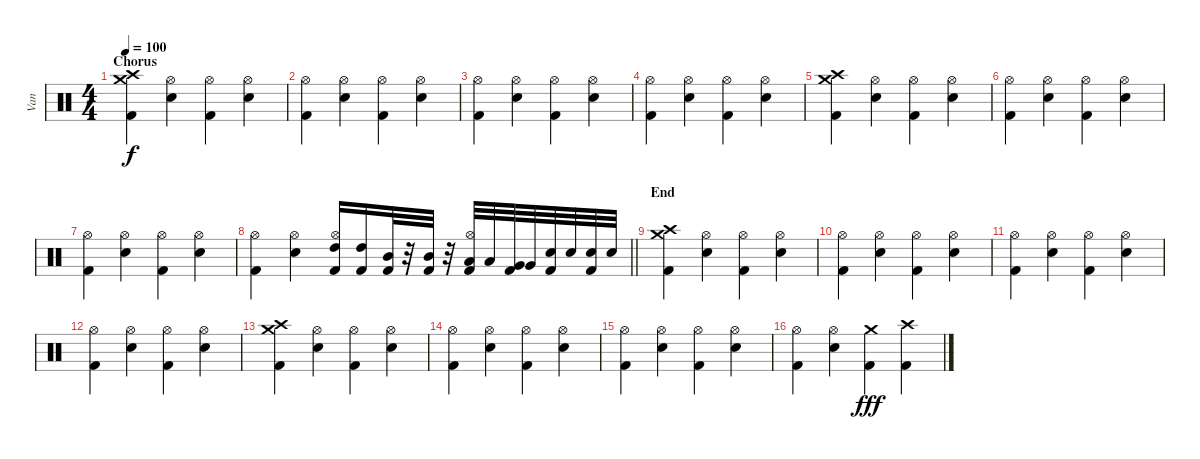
\track ("Van" "Van") {instrument percussion}
\staff {score}
\articulation defaults
\ts (4 4)
\section ("" "Chorus")
\tempo 100
\clef neutral
\ks c
("Crash medium (hit)" "Crash high (hit)" "Kick (hit) 2").4{dy f} ("Hi-Hat (open)" "Electric Snare (hit)").4 ("Hi-Hat (open)" "Kick (hit) 2").4 ("Hi-Hat (open)" "Electric Snare (hit)").4 |
("Hi-Hat (open)" "Kick (hit) 2").4 ("Hi-Hat (open)" "Electric Snare (hit)").4 ("Hi-Hat (open)" "Kick (hit) 2").4 ("Hi-Hat (open)" "Electric Snare (hit)").4 |
("Hi-Hat (open)" "Kick (hit) 2").4 ("Hi-Hat (open)" "Electric Snare (hit)").4 ("Hi-Hat (open)" "Kick (hit) 2").4 ("Hi-Hat (open)" "Electric Snare (hit)").4 |
("Hi-Hat (open)" "Kick (hit) 2").4 ("Hi-Hat (open)" "Electric Snare (hit)").4 ("Hi-Hat (open)" "Kick (hit) 2").4 ("Hi-Hat (open)" "Electric Snare (hit)").4 |
("Crash medium (hit)" "Crash high (hit)" "Kick (hit) 2").4 ("Hi-Hat (open)" "Electric Snare (hit)").4 ("Hi-Hat (open)" "Kick (hit) 2").4 ("Hi-Hat (open)" "Electric Snare (hit)").4 |
("Hi-Hat (open)" "Kick (hit) 2").4 ("Hi-Hat (open)" "Electric Snare (hit)").4 ("Hi-Hat (open)" "Kick (hit) 2").4 ("Hi-Hat (open)" "Electric Snare (hit)").4 |
("Hi-Hat (open)" "Kick (hit) 2").4 ("Hi-Hat (open)" "Electric Snare (hit)").4 ("Hi-Hat (open)" "Kick (hit) 2").4 ("Hi-Hat (open)" "Electric Snare (hit)").4 |
\barLineRight lightlight
("Hi-Hat (open)" "Kick (hit) 2").4 ("Hi-Hat (open)" "Electric Snare (hit)").4 ("Hi-Hat (open)" "High Tom (hit)" "Kick (hit) 2").16 ("High Tom (hit)" "Kick (hit) 2").16 ("Mid Tom (hit)" "Kick (hit) 2").32 r.32 ("Mid Tom (hit)" "Kick (hit) 2").32 r.32 ("Hi-Hat (open)" "Low Tom (hit)" "Kick (hit) 2").32 "Low Tom (hit)".32 ("Very Low Tom (hit)" "Kick (hit) 2").32 "Very Low Tom (hit)".32 ("Electric Snare (hit)" "Kick (hit) 2").32 "Electric Snare (hit)".32 ("Electric Snare (hit)" "Kick (hit) 2").32 "Electric Snare (hit)".32 |
\section ("" "End")
("Crash medium (hit)" "Crash high (hit)" "Kick (hit) 2").4 ("Hi-Hat (open)" "Electric Snare (hit)").4 ("Hi-Hat (open)" "Kick (hit) 2").4 ("Hi-Hat (open)" "Electric Snare (hit)").4 |
("Hi-Hat (open)" "Kick (hit) 2").4 ("Hi-Hat (open)" "Electric Snare (hit)").4 ("Hi-Hat (open)" "Kick (hit) 2").4 ("Hi-Hat (open)" "Electric Snare (hit)").4 |
("Hi-Hat (open)" "Kick (hit) 2").4 ("Hi-Hat (open)" "Electric Snare (hit)").4 ("Hi-Hat (open)" "Kick (hit) 2").4 ("Hi-Hat (open)" "Electric Snare (hit)").4 |
("Hi-Hat (open)" "Kick (hit) 2").4 ("Hi-Hat (open)" "Electric Snare (hit)").4 ("Hi-Hat (open)" "Kick (hit) 2").4 ("Hi-Hat (open)" "Electric Snare (hit)").4 |
("Crash medium (hit)" "Crash high (hit)" "Kick (hit) 2").4 ("Hi-Hat (open)" "Electric Snare (hit)").4 ("Hi-Hat (open)" "Kick (hit) 2").4 ("Hi-Hat (open)" "Electric Snare (hit)").4 |
("Hi-Hat (open)" "Kick (hit) 2").4 ("Hi-Hat (open)" "Electric Snare (hit)").4 ("Hi-Hat (open)" "Kick (hit) 2").4 ("Hi-Hat (open)" "Electric Snare (hit)").4 |
("Hi-Hat (open)" "Kick (hit) 2").4 ("Hi-Hat (open)" "Electric Snare (hit)").4 ("Hi-Hat (open)" "Kick (hit) 2").4 ("Hi-Hat (open)" "Electric Snare (hit)").4 |
("Hi-Hat (open)" "Kick (hit) 2").4 ("Hi-Hat (open)" "Electric Snare (hit)").4 ("Crash medium (hit)" "Kick (hit) 2").4{dy fff} ("Crash high (hit)" "Kick (hit) 2").4
